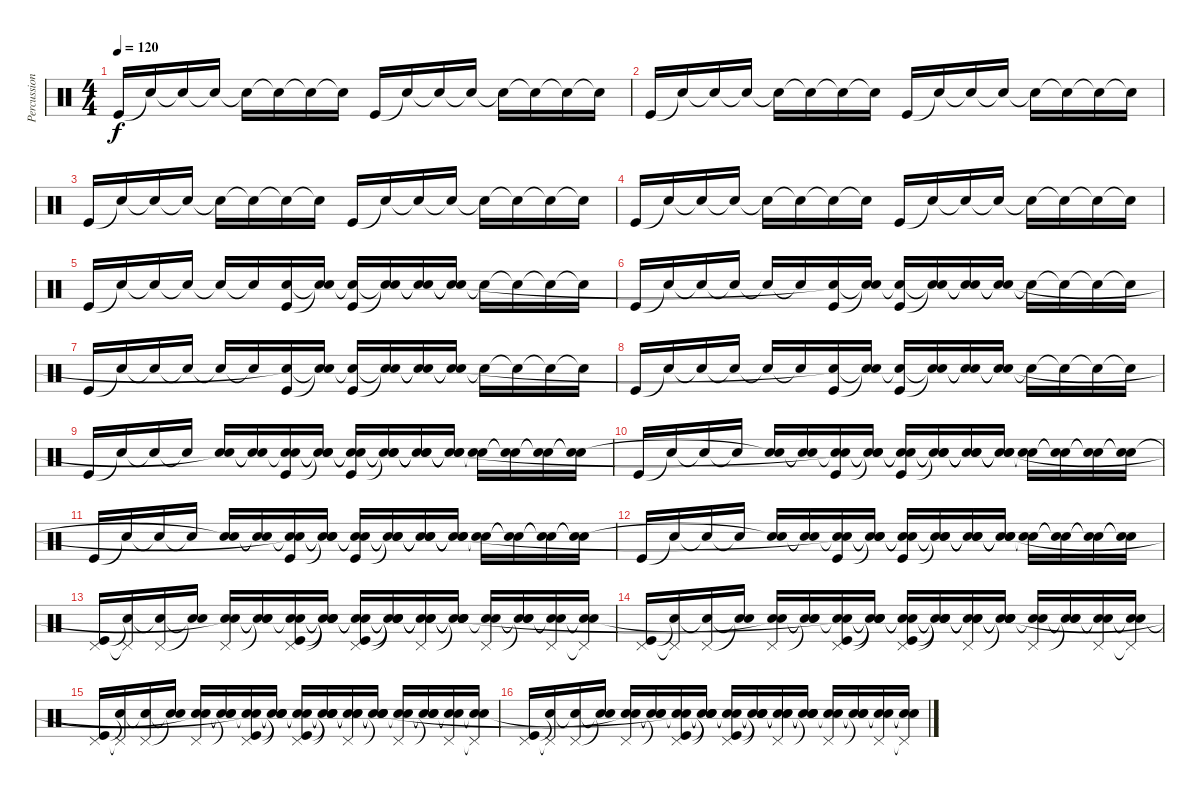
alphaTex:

\track ("Percussion" "Percussion") {instrument percussion}
\staff {score}
\articulation defaults
\ts (4 4)
\tempo 120
\clef neutral
\ks c "Kick (hit)".16{dy f} "Snare (hit)"{t}.16 "Snare (hit)"{t}.16 "Snare (hit)"{t}.16 "Snare (hit)"{t}.16 "Snare (hit)"{t}.16 "Snare (hit)"{t}.16 "Snare (hit)"{t}.16 "Kick (hit)".16 "Snare (hit)"{t}.16 "Snare (hit)"{t}.16 "Snare (hit)"{t}.16 "Snare (hit)"{t}.16 "Snare (hit)"{t}.16 "Snare (hit)"{t}.16 "Snare (hit)"{t}.16
|
"Kick (hit)".16 "Snare (hit)"{t}.16 "Snare (hit)"{t}.16 "Snare (hit)"{t}.16 "Snare (hit)"{t}.16 "Snare (hit)"{t}.16 "Snare (hit)"{t}.16 "Snare (hit)"{t}.16 "Kick (hit)".16 "Snare (hit)"{t}.16 "Snare (hit)"{t}.16 "Snare (hit)"{t}.16 "Snare (hit)"{t}.16 "Snare (hit)"{t}.16 "Snare (hit)"{t}.16 "Snare (hit)"{t}.16 |
"Kick (hit)".16 "Snare (hit)"{t}.16 "Snare (hit)"{t}.16 "Snare (hit)"{t}.16 "Snare (hit)"{t}.16 "Snare (hit)"{t}.16 "Snare (hit)"{t}.16 "Snare (hit)"{t}.16 "Kick (hit)".16 "Snare (hit)"{t}.16 "Snare (hit)"{t}.16 "Snare (hit)"{t}.16 "Snare (hit)"{t}.16 "Snare (hit)"{t}.16 "Snare (hit)"{t}.16 "Snare (hit)"{t}.16 |
"Kick (hit)".16 "Snare (hit)"{t}.16 "Snare (hit)"{t}.16 "Snare (hit)"{t}.16 "Snare (hit)"{t}.16 "Snare (hit)"{t}.16 "Snare (hit)"{t}.16 "Snare (hit)"{t}.16 "Kick (hit)".16 "Snare (hit)"{t}.16 "Snare (hit)"{t}.16 "Snare (hit)"{t}.16 "Snare (hit)"{t}.16 "Snare (hit)"{t}.16 "Snare (hit)"{t}.16 "Snare (hit)"{t}.16 |
"Kick (hit)".16 "Snare (hit)"{t}.16 "Snare (hit)"{t}.16 "Snare (hit)"{t}.16 "Snare (hit)"{t}.16 "Snare (hit)"{t}.16 ("Kick (hit)" "Snare (hit)").16 ("Snare (hit)"{t} "Snare (hit)"{t}).16 ("Snare (hit)"{t} "Kick (hit)").16 ("Snare (hit)"{t} "Snare (hit)"{t}).16 ("Snare (hit)"{t} "Snare (hit)"{t}).16 ("Snare (hit)"{t} "Snare (hit)"{t}).16 "Snare (hit)"{t}.16 "Snare (hit)"{t}.16 "Snare (hit)"{t}.16 "Snare (hit)"{t}.16 |
"Kick (hit)".16 "Snare (hit)"{t}.16 "Snare (hit)"{t}.16 "Snare (hit)"{t}.16 "Snare (hit)"{t}.16 "Snare (hit)"{t}.16 ("Kick (hit)" "Snare (hit)"{t}).16 ("Snare (hit)"{t} "Snare (hit)"{t}).16 ("Snare (hit)"{t} "Kick (hit)").16 ("Snare (hit)"{t} "Snare (hit)"{t}).16 ("Snare (hit)"{t} "Snare (hit)"{t}).16 ("Snare (hit)"{t} "Snare (hit)"{t}).16 "Snare (hit)"{t}.16 "Snare (hit)"{t}.16 "Snare (hit)"{t}.16 "Snare (hit)"{t}.16 |
"Kick (hit)".16 "Snare (hit)"{t}.16 "Snare (hit)"{t}.16 "Snare (hit)"{t}.16 "Snare (hit)"{t}.16 "Snare (hit)"{t}.16 ("Kick (hit)" "Snare (hit)"{t}).16 ("Snare (hit)"{t} "Snare (hit)"{t}).16 ("Snare (hit)"{t} "Kick (hit)").16 ("Snare (hit)"{t} "Snare (hit)"{t}).16 ("Snare (hit)"{t} "Snare (hit)"{t}).16 ("Snare (hit)"{t} "Snare (hit)"{t}).16 "Snare (hit)"{t}.16 "Snare (hit)"{t}.16 "Snare (hit)"{t}.16 "Snare (hit)"{t}.16 |
"Kick (hit)".16 "Snare (hit)"{t}.16 "Snare (hit)"{t}.16 "Snare (hit)"{t}.16 "Snare (hit)"{t}.16 "Snare (hit)"{t}.16 ("Kick (hit)" "Snare (hit)"{t}).16 ("Snare (hit)"{t} "Snare (hit)"{t}).16 ("Snare (hit)"{t} "Kick (hit)").16 ("Snare (hit)"{t} "Snare (hit)"{t}).16 ("Snare (hit)"{t} "Snare (hit)"{t}).16 ("Snare (hit)"{t} "Snare (hit)"{t}).16 "Snare (hit)"{t}.16 "Snare (hit)"{t}.16 "Snare (hit)"{t}.16 "Snare (hit)"{t}.16 |
"Kick (hit)".16 "Snare (hit)"{t}.16 "Snare (hit)"{t}.16 "Snare (hit)"{t}.16 ("Electric Snare (hit)" "Snare (hit)"{t}).16 ("Snare (hit)"{t} "Snare (hit)"{t}).16 ("Kick (hit)" "Snare (hit)"{t} "Snare (hit)").16 ("Snare (hit)"{t} "Snare (hit)"{t} "Snare (hit)"{t}).16 ("Snare (hit)"{t} "Snare (hit)"{t} "Kick (hit)").16 ("Snare (hit)"{t} "Snare (hit)"{t} "Snare (hit)"{t}).16 ("Snare (hit)"{t} "Snare (hit)"{t} "Snare (hit)"{t}).16 ("Snare (hit)"{t} "Snare (hit)"{t} "Snare (hit)"{t}).16 ("Electric Snare (hit)" "Snare (hit)"{t}).16 ("Snare (hit)"{t} "Snare (hit)"{t}).16 ("Snare (hit)"{t} "Snare (hit)"{t}).16 ("Snare (hit)"{t} "Snare (hit)"{t}).16 |
"Kick (hit)".16 "Snare (hit)"{t}.16 "Snare (hit)"{t}.16 "Snare (hit)"{t}.16 ("Electric Snare (hit)" "Snare (hit)"{t}).16 ("Snare (hit)"{t} "Snare (hit)"{t}).16 ("Kick (hit)" "Snare (hit)"{t} "Snare (hit)"{t}).16 ("Snare (hit)"{t} "Snare (hit)"{t} "Snare (hit)"{t}).16 ("Snare (hit)"{t} "Snare (hit)"{t} "Kick (hit)").16 ("Snare (hit)"{t} "Snare (hit)"{t} "Snare (hit)"{t}).16 ("Snare (hit)"{t} "Snare (hit)"{t} "Snare (hit)"{t}).16 ("Snare (hit)"{t} "Snare (hit)"{t} "Snare (hit)"{t}).16 ("Electric Snare (hit)" "Snare (hit)"{t}).16 ("Snare (hit)"{t} "Snare (hit)"{t}).16 ("Snare (hit)"{t} "Snare (hit)"{t}).16 ("Snare (hit)"{t} "Snare (hit)"{t}).16 |
"Kick (hit)".16 "Snare (hit)"{t}.16 "Snare (hit)"{t}.16 "Snare (hit)"{t}.16 ("Electric Snare (hit)" "Snare (hit)"{t}).16 ("Snare (hit)"{t} "Snare (hit)"{t}).16 ("Kick (hit)" "Snare (hit)"{t} "Snare (hit)"{t}).16 ("Snare (hit)"{t} "Snare (hit)"{t} "Snare (hit)"{t}).16 ("Snare (hit)"{t} "Snare (hit)"{t} "Kick (hit)").16 ("Snare (hit)"{t} "Snare (hit)"{t} "Snare (hit)"{t}).16 ("Snare (hit)"{t} "Snare (hit)"{t} "Snare (hit)"{t}).16 ("Snare (hit)"{t} "Snare (hit)"{t} "Snare (hit)"{t}).16 ("Electric Snare (hit)" "Snare (hit)"{t}).16 ("Snare (hit)"{t} "Snare (hit)"{t}).16 ("Snare (hit)"{t} "Snare (hit)"{t}).16 ("Snare (hit)"{t} "Snare (hit)"{t}).16 |
"Kick (hit)".16 "Snare (hit)"{t}.16 "Snare (hit)"{t}.16 "Snare (hit)"{t}.16 ("Electric Snare (hit)" "Snare (hit)"{t}).16 ("Snare (hit)"{t} "Snare (hit)"{t}).16 ("Kick (hit)" "Snare (hit)"{t} "Snare (hit)"{t}).16 ("Snare (hit)"{t} "Snare (hit)"{t} "Snare (hit)"{t}).16 ("Snare (hit)"{t} "Snare (hit)"{t} "Kick (hit)").16 ("Snare (hit)"{t} "Snare (hit)"{t} "Snare (hit)"{t}).16 ("Snare (hit)"{t} "Snare (hit)"{t} "Snare (hit)"{t}).16 ("Snare (hit)"{t} "Snare (hit)"{t} "Snare (hit)"{t}).16 ("Electric Snare (hit)" "Snare (hit)"{t}).16 ("Snare (hit)"{t} "Snare (hit)"{t}).16 ("Snare (hit)"{t} "Snare (hit)"{t}).16 ("Snare (hit)"{t} "Snare (hit)"{t}).16 |
("Pedal Hi-Hat (hit)" "Kick (hit)").16 ("Pedal Hi-Hat (hit)"{t} "Snare (hit)"{t}).16 ("Pedal Hi-Hat (hit)" "Snare (hit)"{t}).16 ("Snare (hit)"{t} "Snare (hit)"{t}).16 ("Pedal Hi-Hat (hit)" "Electric Snare (hit)" "Snare (hit)"{t}).16 ("Snare (hit)"{t} "Snare (hit)"{t} "Snare (hit)"{t}).16 ("Pedal Hi-Hat (hit)" "Kick (hit)" "Snare (hit)"{t} "Snare (hit)").16 ("Snare (hit)"{t} "Snare (hit)"{t} "Snare (hit)"{t} "Snare (hit)"{t}).16 ("Pedal Hi-Hat (hit)" "Snare (hit)"{t} "Snare (hit)"{t} "Kick (hit)").16 ("Snare (hit)"{t} "Snare (hit)"{t} "Snare (hit)"{t} "Snare (hit)"{t}).16 ("Pedal Hi-Hat (hit)" "Snare (hit)"{t} "Snare (hit)"{t} "Snare (hit)"{t}).16 ("Snare (hit)"{t} "Snare (hit)"{t} "Snare (hit)"{t} "Snare (hit)"{t}).16 ("Pedal Hi-Hat (hit)" "Electric Snare (hit)" "Snare (hit)"{t}).16 ("Snare (hit)"{t} "Snare (hit)"{t} "Snare (hit)"{t}).16 ("Pedal Hi-Hat (hit)" "Snare (hit)"{t} "Snare (hit)"{t}).16 ("Pedal Hi-Hat (hit)"{t} "Snare (hit)"{t} "Snare (hit)"{t}).16 |
("Pedal Hi-Hat (hit)" "Kick (hit)").16 ("Pedal Hi-Hat (hit)"{t} "Snare (hit)"{t}).16 ("Pedal Hi-Hat (hit)" "Snare (hit)"{t}).16 ("Snare (hit)"{t} "Snare (hit)"{t}).16 ("Pedal Hi-Hat (hit)" "Electric Snare (hit)" "Snare (hit)"{t}).16 ("Snare (hit)"{t} "Snare (hit)"{t} "Snare (hit)"{t}).16 ("Pedal Hi-Hat (hit)" "Kick (hit)" "Snare (hit)"{t} "Snare (hit)"{t}).16 ("Snare (hit)"{t} "Snare (hit)"{t} "Snare (hit)"{t} "Snare (hit)"{t}).16 ("Pedal Hi-Hat (hit)" "Snare (hit)"{t} "Snare (hit)"{t} "Kick (hit)").16 ("Snare (hit)"{t} "Snare (hit)"{t} "Snare (hit)"{t} "Snare (hit)"{t}).16 ("Pedal Hi-Hat (hit)" "Snare (hit)"{t} "Snare (hit)"{t} "Snare (hit)"{t}).16 ("Snare (hit)"{t} "Snare (hit)"{t} "Snare (hit)"{t} "Snare (hit)"{t}).16 ("Pedal Hi-Hat (hit)" "Electric Snare (hit)" "Snare (hit)"{t}).16 ("Snare (hit)"{t} "Snare (hit)"{t} "Snare (hit)"{t}).16 ("Pedal Hi-Hat (hit)" "Snare (hit)"{t} "Snare (hit)"{t}).16 ("Pedal Hi-Hat (hit)"{t} "Snare (hit)"{t} "Snare (hit)"{t}).16 |
("Pedal Hi-Hat (hit)" "Kick (hit)").16 ("Pedal Hi-Hat (hit)"{t} "Snare (hit)"{t}).16 ("Pedal Hi-Hat (hit)" "Snare (hit)"{t}).16 ("Snare (hit)"{t} "Snare (hit)"{t}).16 ("Pedal Hi-Hat (hit)" "Electric Snare (hit)" "Snare (hit)"{t}).16 ("Snare (hit)"{t} "Snare (hit)"{t} "Snare (hit)"{t}).16 ("Pedal Hi-Hat (hit)" "Kick (hit)" "Snare (hit)"{t} "Snare (hit)"{t}).16 ("Snare (hit)"{t} "Snare (hit)"{t} "Snare (hit)"{t} "Snare (hit)"{t}).16 ("Pedal Hi-Hat (hit)" "Snare (hit)"{t} "Snare (hit)"{t} "Kick (hit)").16 ("Snare (hit)"{t} "Snare (hit)"{t} "Snare (hit)"{t} "Snare (hit)"{t}).16 ("Pedal Hi-Hat (hit)" "Snare (hit)"{t} "Snare (hit)"{t} "Snare (hit)"{t}).16 ("Snare (hit)"{t} "Snare (hit)"{t} "Snare (hit)"{t} "Snare (hit)"{t}).16 ("Pedal Hi-Hat (hit)" "Electric Snare (hit)" "Snare (hit)"{t}).16 ("Snare (hit)"{t} "Snare (hit)"{t} "Snare (hit)"{t}).16 ("Pedal Hi-Hat (hit)" "Snare (hit)"{t} "Snare (hit)"{t}).16 ("Pedal Hi-Hat (hit)"{t} "Snare (hit)"{t} "Snare (hit)"{t}).16 |
("Pedal Hi-Hat (hit)" "Kick (hit)").16 ("Pedal Hi-Hat (hit)"{t} "Snare (hit)"{t}).16 ("Pedal Hi-Hat (hit)" "Snare (hit)"{t}).16 ("Snare (hit)"{t} "Snare (hit)"{t}).16 ("Pedal Hi-Hat (hit)" "Electric Snare (hit)" "Snare (hit)"{t}).16 ("Snare (hit)"{t} "Snare (hit)"{t} "Snare (hit)"{t}).16 ("Pedal Hi-Hat (hit)" "Kick (hit)" "Snare (hit)"{t} "Snare (hit)"{t}).16 ("Snare (hit)"{t} "Snare (hit)"{t} "Snare (hit)"{t} "Snare (hit)"{t}).16 ("Pedal Hi-Hat (hit)" "Snare (hit)"{t} "Snare (hit)"{t} "Kick (hit)").16 ("Snare (hit)"{t} "Snare (hit)"{t} "Snare (hit)"{t} "Snare (hit)"{t}).16 ("Pedal Hi-Hat (hit)" "Snare (hit)"{t} "Snare (hit)"{t} "Snare (hit)"{t}).16 ("Snare (hit)"{t} "Snare (hit)"{t} "Snare (hit)"{t} "Snare (hit)"{t}).16 ("Pedal Hi-Hat (hit)" "Electric Snare (hit)" "Snare (hit)"{t}).16 ("Snare (hit)"{t} "Snare (hit)"{t} "Snare (hit)"{t}).16 ("Pedal Hi-Hat (hit)" "Snare (hit)"{t} "Snare (hit)"{t}).16 ("Pedal Hi-Hat (hit)"{t} "Snare (hit)"{t} "Snare (hit)"{t}).16
